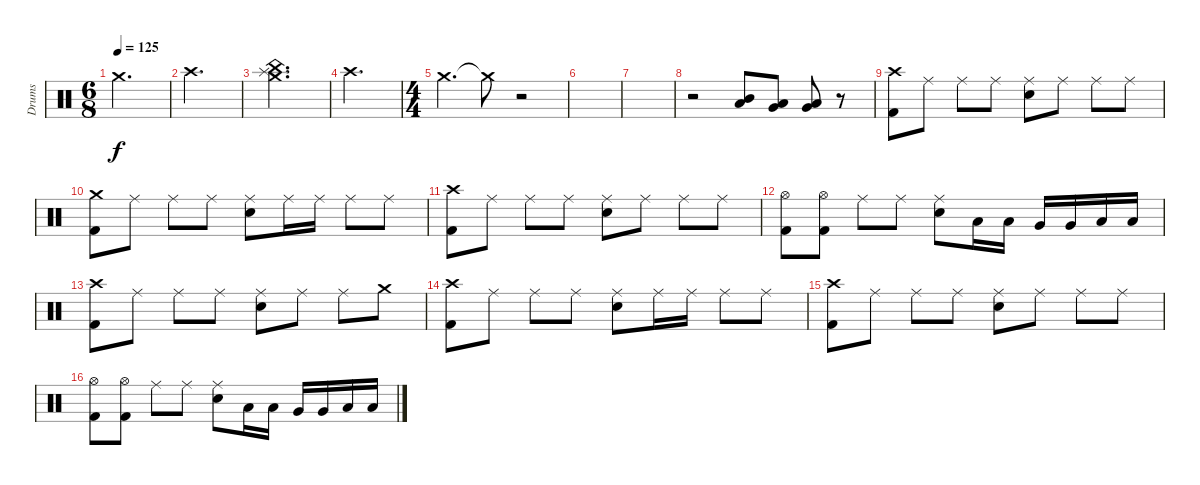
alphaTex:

\track ("Drums" "Drums") {instrument percussion}
\staff {score}
\articulation defaults
\ts (6 8)
\tempo 125
\clef neutral
\ks c "Crash medium (hit)".2{d dy f}
|
"Crash high (hit)".2{d} |
("China (hit)" "Crash medium (hit)" "Splash (hit)").2{d} |
"Crash high (hit)".2{d} |
\ts (4 4)
"Crash medium (hit)".4{d} "Crash medium (hit)"{t}.8{volume 0} r.2 |
|
|
r.2{volume 16} ("Mid Tom (hit)" "Low Tom (hit)").8 ("Low Tom (hit)" "Very Low Tom (hit)").8 ("Very Low Tom (hit)" "Low Floor Tom (hit)").8 r.8 |
("Crash high (hit)" "Kick (hit) 2").8 "Ride (middle)".8 "Ride (middle)".8 "Ride (middle)".8 ("Ride (middle)" "Electric Snare (hit)").8 "Ride (middle)".8 "Ride (middle)".8 "Ride (middle)".8 |
("Crash medium (hit)" "Kick (hit) 2").8 "Ride (middle)".8 "Ride (middle)".8 "Ride (middle)".8 ("Ride (middle)" "Electric Snare (hit)").8 "Ride (middle)".16 "Ride (middle)".16 "Ride (middle)".8 "Ride (middle)".8 |
("Crash high (hit)" "Kick (hit) 2").8 "Ride (middle)".8 "Ride (middle)".8 "Ride (middle)".8 ("Ride (middle)" "Electric Snare (hit)").8 "Ride (middle)".8 "Ride (middle)".8 "Ride (middle)".8 |
("Hi-Hat (open)" "Kick (hit) 2").8 ("Hi-Hat (open)" "Kick (hit) 2").8 "Ride (middle)".8 "Ride (middle)".8 ("Ride (middle)" "Electric Snare (hit)").8 "Low Tom (hit)".16 "Low Tom (hit)".16 "Very Low Tom (hit)".16 "Very Low Tom (hit)".16 "Low Floor Tom (hit)".16 "Low Floor Tom (hit)".16 |
("Crash high (hit)" "Kick (hit) 2").8 "Ride (middle)".8 "Ride (middle)".8 "Ride (middle)".8 ("Ride (middle)" "Electric Snare (hit)").8 "Ride (middle)".8 "Ride (middle)".8 "Crash medium (hit)".8 |
("Crash high (hit)" "Kick (hit) 2").8 "Ride (middle)".8 "Ride (middle)".8 "Ride (middle)".8 ("Ride (middle)" "Electric Snare (hit)").8 "Ride (middle)".16 "Ride (middle)".16 "Ride (middle)".8 "Ride (middle)".8 |
("Crash high (hit)" "Kick (hit) 2").8 "Ride (middle)".8 "Ride (middle)".8 "Ride (middle)".8 ("Ride (middle)" "Electric Snare (hit)").8 "Ride (middle)".8 "Ride (middle)".8 "Ride (middle)".8 |
("Hi-Hat (open)" "Kick (hit) 2").8 ("Hi-Hat (open)" "Kick (hit) 2").8 "Ride (middle)".8 "Ride (middle)".8 ("Ride (middle)" "Electric Snare (hit)").8 "Low Tom (hit)".16 "Low Tom (hit)".16 "Very Low Tom (hit)".16 "Very Low Tom (hit)".16 "Low Floor Tom (hit)".16 "Low Floor Tom (hit)".16
